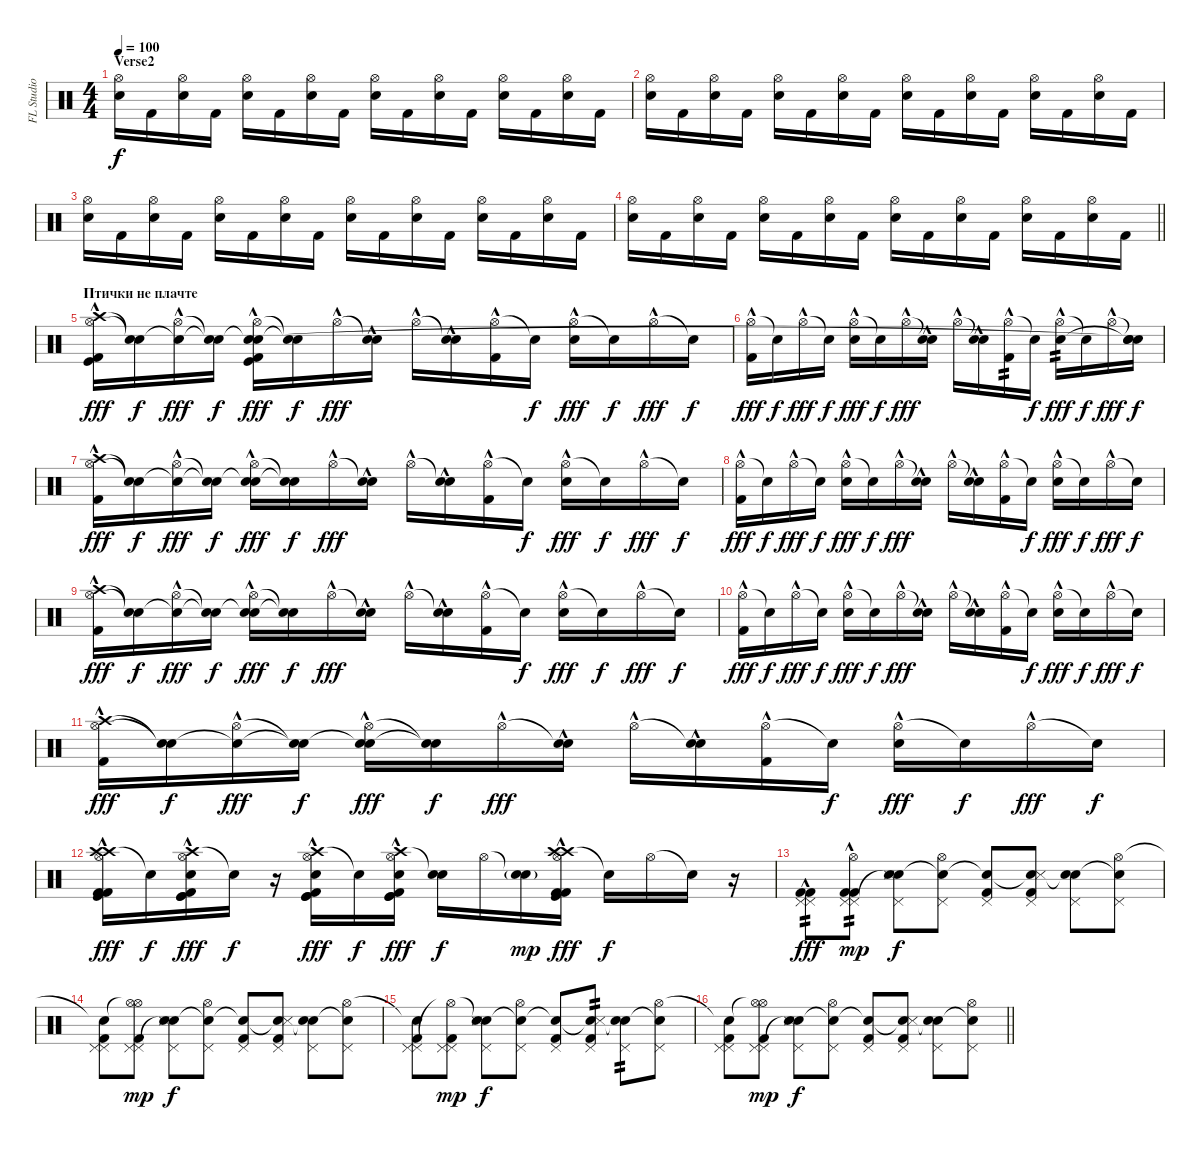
\track ("FL Studio" "FL Studio") {instrument percussion}
\staff {score}
\articulation defaults
\ts (4 4)
\section ("" "Verse2")
\tempo 100
\clef neutral
\ks c
("Hi-Hat (open)" "Electric Snare (hit)").16{dy f} "Kick (hit) 2".16 ("Hi-Hat (open)" "Electric Snare (hit)").16 "Kick (hit) 2".16 ("Hi-Hat (open)" "Electric Snare (hit)").16 "Kick (hit) 2".16 ("Hi-Hat (open)" "Electric Snare (hit)").16 "Kick (hit) 2".16 ("Hi-Hat (open)" "Electric Snare (hit)").16 "Kick (hit) 2".16 ("Hi-Hat (open)" "Electric Snare (hit)").16 "Kick (hit) 2".16 ("Hi-Hat (open)" "Electric Snare (hit)").16 "Kick (hit) 2".16 ("Hi-Hat (open)" "Electric Snare (hit)").16 "Kick (hit) 2".16 |
("Hi-Hat (open)" "Electric Snare (hit)").16 "Kick (hit) 2".16 ("Hi-Hat (open)" "Electric Snare (hit)").16 "Kick (hit) 2".16 ("Hi-Hat (open)" "Electric Snare (hit)").16 "Kick (hit) 2".16 ("Hi-Hat (open)" "Electric Snare (hit)").16 "Kick (hit) 2".16 ("Hi-Hat (open)" "Electric Snare (hit)").16 "Kick (hit) 2".16 ("Hi-Hat (open)" "Electric Snare (hit)").16 "Kick (hit) 2".16 ("Hi-Hat (open)" "Electric Snare (hit)").16 "Kick (hit) 2".16 ("Hi-Hat (open)" "Electric Snare (hit)").16 "Kick (hit) 2".16 |
("Hi-Hat (open)" "Electric Snare (hit)").16 "Kick (hit) 2".16 ("Hi-Hat (open)" "Electric Snare (hit)").16 "Kick (hit) 2".16 ("Hi-Hat (open)" "Electric Snare (hit)").16 "Kick (hit) 2".16 ("Hi-Hat (open)" "Electric Snare (hit)").16 "Kick (hit) 2".16 ("Hi-Hat (open)" "Electric Snare (hit)").16 "Kick (hit) 2".16 ("Hi-Hat (open)" "Electric Snare (hit)").16 "Kick (hit) 2".16 ("Hi-Hat (open)" "Electric Snare (hit)").16 "Kick (hit) 2".16 ("Hi-Hat (open)" "Electric Snare (hit)").16 "Kick (hit) 2".16 |
\barLineRight lightlight
("Hi-Hat (open)" "Electric Snare (hit)").16 "Kick (hit) 2".16 ("Hi-Hat (open)" "Electric Snare (hit)").16 "Kick (hit) 2".16 ("Hi-Hat (open)" "Electric Snare (hit)").16 "Kick (hit) 2".16 ("Hi-Hat (open)" "Electric Snare (hit)").16 "Kick (hit) 2".16 ("Hi-Hat (open)" "Electric Snare (hit)").16 "Kick (hit) 2".16 ("Hi-Hat (open)" "Electric Snare (hit)").16 "Kick (hit) 2".16 ("Hi-Hat (open)" "Electric Snare (hit)").16 "Kick (hit) 2".16 ("Hi-Hat (open)" "Electric Snare (hit)").16 "Kick (hit) 2".16 |
\section ("" "Птички не плачте")
("Crash high (hit)"{hac} "Hi-Hat (open)"{hac} "Kick (hit)"{hac} "Kick (hit) 2"{hac}).16{dy fff} ("Snare (hit)"{t} "Snare (hit)"{t}).16{dy f} ("Snare (hit)"{t} "Hi-Hat (open)"{hac}).16{dy fff} ("Snare (hit)"{t} "Snare (hit)"{t}).16{dy f} ("Snare (hit)"{t} "Hi-Hat (open)"{hac} "Electric Snare (hit)"{hac} "Kick (hit)"{hac} "Kick (hit) 2"{hac}).16{dy fff} ("Snare (hit)"{t} "Snare (hit)"{t}).16{dy f} "Hi-Hat (open)"{hac}.16{dy fff} ("Snare (hit)"{t} "Electric Snare (hit)"{hac}).16 "Hi-Hat (open)"{hac}.16 ("Snare (hit)"{t} "Electric Snare (hit)"{hac}).16 ("Hi-Hat (open)"{hac} "Kick (hit) 2"{hac}).16 "Snare (hit)"{t}.16{dy f} ("Hi-Hat (open)"{hac} "Electric Snare (hit)"{hac}).16{dy fff} "Snare (hit)"{t}.16{dy f} "Hi-Hat (open)"{hac}.16{dy fff} "Snare (hit)"{t}.16{dy f} |
("Hi-Hat (open)"{hac} "Kick (hit) 2"{hac}).16{dy fff} "Snare (hit)"{t}.16{dy f} "Hi-Hat (open)"{hac}.16{dy fff} "Snare (hit)"{t}.16{dy f} ("Hi-Hat (open)"{hac} "Electric Snare (hit)"{hac}).16{dy fff} "Snare (hit)"{t}.16{dy f} "Hi-Hat (open)"{hac}.16{dy fff} ("Snare (hit)"{t} "Electric Snare (hit)"{hac}).16 "Hi-Hat (open)"{hac}.16 ("Snare (hit)"{t} "Electric Snare (hit)"{hac}).16 ("Hi-Hat (open)"{hac} "Kick (hit) 2"{hac}).16{tp 2} "Snare (hit)"{t}.16{dy f} ("Hi-Hat (open)"{hac} "Electric Snare (hit)"{hac}).16{tp 2 dy fff} "Snare (hit)"{t}.16{dy f} "Hi-Hat (open)"{hac}.16{dy fff} ("Snare (hit)"{t} "Snare (hit)"{t} "Snare (hit)"{t}).16{dy f} |
("Crash high (hit)"{hac} "Hi-Hat (open)"{hac} "Kick (hit) 2"{hac}).16{dy fff} ("Snare (hit)"{t} "Snare (hit)"{t}).16{dy f} ("Snare (hit)"{t} "Hi-Hat (open)"{hac}).16{dy fff} ("Snare (hit)"{t} "Snare (hit)"{t}).16{dy f} ("Snare (hit)"{t} "Hi-Hat (open)"{hac} "Electric Snare (hit)"{hac}).16{dy fff} ("Snare (hit)"{t} "Snare (hit)"{t}).16{dy f} "Hi-Hat (open)"{hac}.16{dy fff} ("Snare (hit)"{t} "Electric Snare (hit)"{hac}).16 "Hi-Hat (open)"{hac}.16 ("Snare (hit)"{t} "Electric Snare (hit)"{hac}).16 ("Hi-Hat (open)"{hac} "Kick (hit) 2"{hac}).16 "Snare (hit)"{t}.16{dy f} ("Hi-Hat (open)"{hac} "Electric Snare (hit)"{hac}).16{dy fff} "Snare (hit)"{t}.16{dy f} "Hi-Hat (open)"{hac}.16{dy fff} "Snare (hit)"{t}.16{dy f} |
("Hi-Hat (open)"{hac} "Kick (hit) 2"{hac}).16{dy fff} "Snare (hit)"{t}.16{dy f} "Hi-Hat (open)"{hac}.16{dy fff} "Snare (hit)"{t}.16{dy f} ("Hi-Hat (open)"{hac} "Electric Snare (hit)"{hac}).16{dy fff} "Snare (hit)"{t}.16{dy f} "Hi-Hat (open)"{hac}.16{dy fff} ("Snare (hit)"{t} "Electric Snare (hit)"{hac}).16 "Hi-Hat (open)"{hac}.16 ("Snare (hit)"{t} "Electric Snare (hit)"{hac}).16 ("Hi-Hat (open)"{hac} "Kick (hit) 2"{hac}).16 "Snare (hit)"{t}.16{dy f} ("Hi-Hat (open)"{hac} "Electric Snare (hit)"{hac}).16{dy fff} "Snare (hit)"{t}.16{dy f} "Hi-Hat (open)"{hac}.16{dy fff} "Snare (hit)"{t}.16{dy f} |
("Crash high (hit)"{hac} "Hi-Hat (open)"{hac} "Kick (hit) 2"{hac}).16{dy fff} ("Snare (hit)"{t} "Snare (hit)"{t}).16{dy f} ("Snare (hit)"{t} "Hi-Hat (open)"{hac}).16{dy fff} ("Snare (hit)"{t} "Snare (hit)"{t}).16{dy f} ("Snare (hit)"{t} "Hi-Hat (open)"{hac} "Electric Snare (hit)"{hac}).16{dy fff} ("Snare (hit)"{t} "Snare (hit)"{t}).16{dy f} "Hi-Hat (open)"{hac}.16{dy fff} ("Snare (hit)"{t} "Electric Snare (hit)"{hac}).16 "Hi-Hat (open)"{hac}.16 ("Snare (hit)"{t} "Electric Snare (hit)"{hac}).16 ("Hi-Hat (open)"{hac} "Kick (hit) 2"{hac}).16 "Snare (hit)"{t}.16{dy f} ("Hi-Hat (open)"{hac} "Electric Snare (hit)"{hac}).16{dy fff} "Snare (hit)"{t}.16{dy f} "Hi-Hat (open)"{hac}.16{dy fff} "Snare (hit)"{t}.16{dy f} |
("Hi-Hat (open)"{hac} "Kick (hit) 2"{hac}).16{dy fff} "Snare (hit)"{t}.16{dy f} "Hi-Hat (open)"{hac}.16{dy fff} "Snare (hit)"{t}.16{dy f} ("Hi-Hat (open)"{hac} "Electric Snare (hit)"{hac}).16{dy fff} "Snare (hit)"{t}.16{dy f} "Hi-Hat (open)"{hac}.16{dy fff} ("Snare (hit)"{t} "Electric Snare (hit)"{hac}).16 "Hi-Hat (open)"{hac}.16 ("Snare (hit)"{t} "Electric Snare (hit)"{hac}).16 ("Hi-Hat (open)"{hac} "Kick (hit) 2"{hac}).16 "Snare (hit)"{t}.16{dy f} ("Hi-Hat (open)"{hac} "Electric Snare (hit)"{hac}).16{dy fff} "Snare (hit)"{t}.16{dy f} "Hi-Hat (open)"{hac}.16{dy fff} "Snare (hit)"{t}.16{dy f} |
("Crash high (hit)"{hac} "Hi-Hat (open)"{hac} "Kick (hit) 2"{hac}).16{dy fff} ("Snare (hit)"{t} "Snare (hit)"{t}).16{dy f} ("Snare (hit)"{t} "Hi-Hat (open)"{hac}).16{dy fff} ("Snare (hit)"{t} "Snare (hit)"{t}).16{dy f} ("Snare (hit)"{t} "Hi-Hat (open)"{hac} "Electric Snare (hit)"{hac}).16{dy fff} ("Snare (hit)"{t} "Snare (hit)"{t}).16{dy f} "Hi-Hat (open)"{hac}.16{dy fff} ("Snare (hit)"{t} "Electric Snare (hit)"{hac}).16 "Hi-Hat (open)"{hac}.16 ("Snare (hit)"{t} "Electric Snare (hit)"{hac}).16 ("Hi-Hat (open)"{hac} "Kick (hit) 2"{hac}).16 "Snare (hit)"{t}.16{dy f} ("Hi-Hat (open)"{hac} "Electric Snare (hit)"{hac}).16{dy fff} "Snare (hit)"{t}.16{dy f} "Hi-Hat (open)"{hac}.16{dy fff} "Snare (hit)"{t}.16{dy f} |
("Crash high (hit)"{hac} "Hi-Hat (open)"{hac} "Crash high (hit)"{hac} "Kick (hit) 2"{hac} "Kick (hit)"{hac} "Kick (hit) 2"{hac}).16{dy fff} "Snare (hit)"{t}.16{dy f} ("Crash high (hit)"{hac} "Hi-Hat (open)"{hac} "Kick (hit)"{hac} "Electric Snare (hit)"{hac} "Kick (hit) 2"{hac} "Kick (hit)"{hac}).16{dy fff} "Snare (hit)"{t}.16{dy f} r.16 ("Crash high (hit)"{hac} "Hi-Hat (open)"{hac} "Kick (hit)"{hac} "Electric Snare (hit)"{hac} "Kick (hit) 2"{hac} "Kick (hit)"{hac}).16{dy fff} "Snare (hit)"{t}.16{dy f} ("Crash high (hit)"{hac} "Hi-Hat (open)"{hac} "Kick (hit)"{hac} "Electric Snare (hit)"{hac} "Kick (hit) 2"{hac} "Kick (hit)"{hac}).16{dy fff} ("Snare (hit)"{t} "Electric Snare (hit)").16{dy f} "Hi-Hat (open)".16 ("Snare (hit)"{t} "Electric Snare (hit)"{g}).16{dy mp} ("Crash high (hit)"{hac} "Hi-Hat (open)"{hac} "Crash high (hit)"{hac} "Kick (hit) 2"{hac} "Kick (hit)"{hac} "Kick (hit) 2"{hac}).16{dy fff} "Snare (hit)"{t}.16{dy f} "Hi-Hat (open)".16 "Snare (hit)"{t}.16 r.16 |
("Pedal Hi-Hat (hit)" "Pedal Hi-Hat (hit)" "Kick (hit) 2"{hac} "Kick (hit) 2").8{tp 2 dy fff} ("Hi-Hat (open)" "Pedal Hi-Hat (hit)" "Kick (hit) 2"{hac} "Pedal Hi-Hat (hit)" "Kick (hit) 2").8{tp 2 dy mp} ("Pedal Hi-Hat (hit)" "Snare (hit)"{t} "Electric Snare (hit)" "Metronome (hit)").8{dy f} ("Pedal Hi-Hat (hit)" "Snare (hit)"{t} "Hi-Hat (open)").8 ("Pedal Hi-Hat (hit)" "Snare (hit)"{t} "Kick (hit) 2").8 ("Pedal Hi-Hat (hit)" "Snare (hit)"{t} "Kick (hit) 2" "Metronome (hit)").8 ("Pedal Hi-Hat (hit)" "Snare (hit)"{t} "Electric Snare (hit)").8 ("Pedal Hi-Hat (hit)" "Snare (hit)"{t} "Hi-Hat (open)").8 |
("Pedal Hi-Hat (hit)" "Pedal Hi-Hat (hit)" "Snare (hit)"{t} "Kick (hit) 2").8 ("Hi-Hat (open)" "Pedal Hi-Hat (hit)" "Hi-Hat (open)"{t} "Pedal Hi-Hat (hit)" "Kick (hit) 2").8{dy mp} ("Pedal Hi-Hat (hit)" "Snare (hit)"{t} "Electric Snare (hit)" "Metronome (hit)").8{dy f} ("Pedal Hi-Hat (hit)" "Snare (hit)"{t} "Hi-Hat (open)").8 ("Pedal Hi-Hat (hit)" "Snare (hit)"{t} "Kick (hit) 2").8 ("Pedal Hi-Hat (hit)" "Snare (hit)"{t} "Kick (hit) 2" "Metronome (hit)").8 ("Pedal Hi-Hat (hit)" "Snare (hit)"{t} "Electric Snare (hit)").8 ("Pedal Hi-Hat (hit)" "Snare (hit)"{t} "Hi-Hat (open)").8 |
("Pedal Hi-Hat (hit)" "Pedal Hi-Hat (hit)" "Snare (hit)"{t} "Kick (hit) 2").8 ("Pedal Hi-Hat (hit)" "Hi-Hat (open)"{t} "Pedal Hi-Hat (hit)" "Kick (hit) 2").8{dy mp} ("Pedal Hi-Hat (hit)" "Snare (hit)"{t} "Electric Snare (hit)" "Metronome (hit)").8{dy f} ("Pedal Hi-Hat (hit)" "Snare (hit)"{t} "Hi-Hat (open)").8 ("Pedal Hi-Hat (hit)" "Snare (hit)"{t} "Kick (hit) 2").8 ("Pedal Hi-Hat (hit)" "Snare (hit)"{t} "Kick (hit) 2" "Metronome (hit)").8{tp 2} ("Pedal Hi-Hat (hit)" "Snare (hit)"{t} "Electric Snare (hit)").8{tp 2} ("Pedal Hi-Hat (hit)" "Snare (hit)"{t} "Hi-Hat (open)").8 |
\barLineRight lightlight
("Pedal Hi-Hat (hit)" "Pedal Hi-Hat (hit)" "Snare (hit)"{t} "Kick (hit) 2").8 ("Hi-Hat (open)" "Pedal Hi-Hat (hit)" "Hi-Hat (open)"{t} "Pedal Hi-Hat (hit)" "Kick (hit) 2").8{dy mp} ("Pedal Hi-Hat (hit)" "Snare (hit)"{t} "Electric Snare (hit)" "Metronome (hit)").8{dy f} ("Pedal Hi-Hat (hit)" "Snare (hit)"{t} "Hi-Hat (open)").8 ("Pedal Hi-Hat (hit)" "Snare (hit)"{t} "Kick (hit) 2").8 ("Pedal Hi-Hat (hit)" "Snare (hit)"{t} "Kick (hit) 2" "Metronome (hit)").8 ("Pedal Hi-Hat (hit)" "Snare (hit)"{t} "Electric Snare (hit)").8 ("Pedal Hi-Hat (hit)" "Snare (hit)"{t} "Hi-Hat (open)").8
